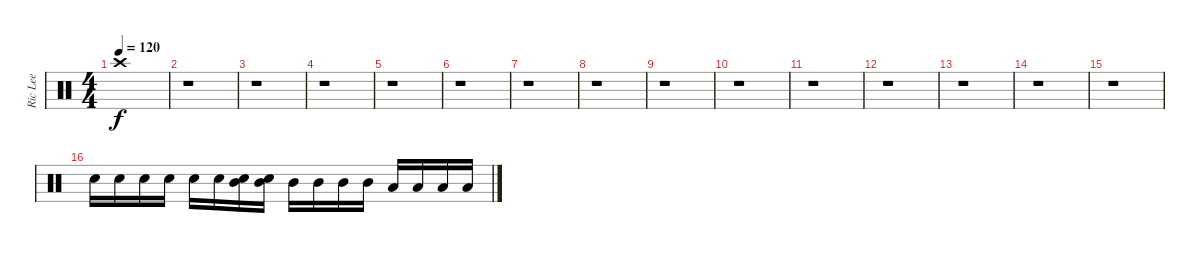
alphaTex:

\track ("Ric Lee" "Ric Lee") {instrument percussion}
\staff {score}
\articulation defaults
\ts (4 4)
\tempo 120
\clef neutral
\ks c "Crash high (hit)".1{dy f}
|
r.1 |
r.1 |
r.1 |
r.1 |
r.1 |
r.1 |
r.1 |
r.1 |
r.1 |
r.1 |
r.1 |
r.1 |
r.1 |
r.1 |
"Snare (hit) 2".16 "Snare (hit) 2".16 "Snare (hit) 2".16 "Snare (hit) 2".16 "Snare (hit) 2".16 "Snare (hit) 2".16 ("Mid Tom (hit)" "Snare (hit) 2").16 ("Mid Tom (hit)" "Snare (hit) 2").16 "Mid Tom (hit)".16 "Mid Tom (hit)".16 "Mid Tom (hit)".16 "Mid Tom (hit)".16 "Low Tom (hit)".16 "Low Tom (hit)".16 "Low Tom (hit)".16 "Low Tom (hit)".16
